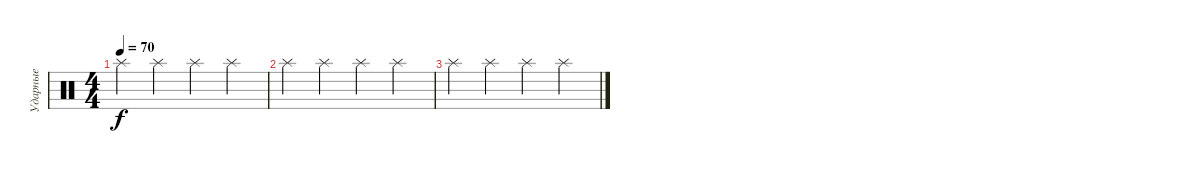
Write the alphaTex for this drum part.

\track ("Ударные" "Ударные") {instrument percussion}
\staff {score}
\articulation defaults
\ts (4 4)
\tempo 70
\clef neutral
\ks c "Splash (hit)".4{dy f} "Splash (hit)".4 "Splash (hit)".4 "Splash (hit)".4
|
"Splash (hit)".4 "Splash (hit)".4 "Splash (hit)".4 "Splash (hit)".4 |
"Splash (hit)".4 "Splash (hit)".4 "Splash (hit)".4 "Splash (hit)".4
